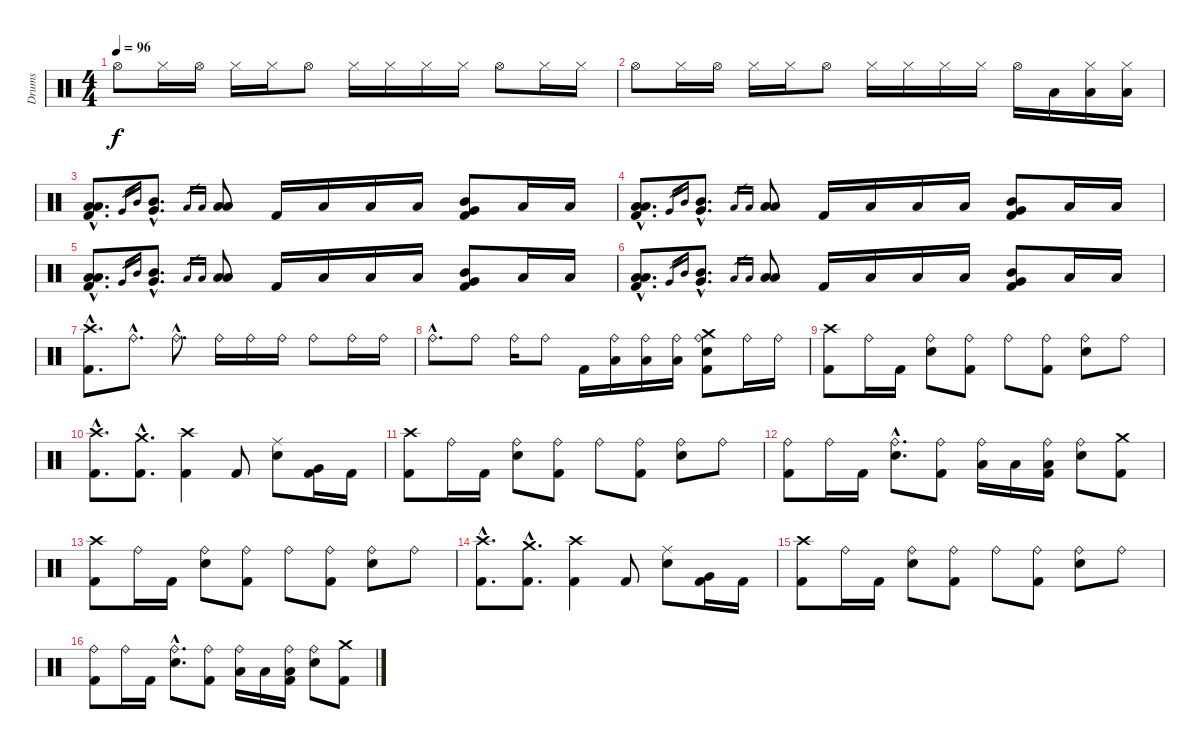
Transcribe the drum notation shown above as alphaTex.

\track ("Drums" "Drums") {instrument percussion}
\staff {score}
\articulation defaults
\ts (4 4)
\tempo 96
\clef neutral
\ks c "Hi-Hat (open)".8{dy f} "Hi-Hat (closed)".16 "Hi-Hat (open)".16 "Hi-Hat (closed)".16 "Hi-Hat (closed)".16 "Hi-Hat (open)".8 "Hi-Hat (closed)".16 "Hi-Hat (closed)".16 "Hi-Hat (closed)".16 "Hi-Hat (closed)".16 "Hi-Hat (open)".8 "Hi-Hat (closed)".16 "Hi-Hat (closed)".16
|
"Hi-Hat (open)".8 "Hi-Hat (closed)".16 "Hi-Hat (open)".16 "Hi-Hat (closed)".16 "Hi-Hat (closed)".16 "Hi-Hat (open)".8 "Hi-Hat (closed)".16 "Hi-Hat (closed)".16 "Hi-Hat (closed)".16 "Hi-Hat (closed)".16 "Hi-Hat (open)".16 "Low Tom (hit)".16 ("Hi-Hat (closed)" "Low Tom (hit)").16 ("Hi-Hat (closed)" "Low Tom (hit)").16 |
("Kick (hit) 2"{hac} "Low Floor Tom (hit)"{hac} "Low Tom (hit)"{hac}).8{d} "Very Low Tom (hit)".16{gr} "Mid Tom (hit)".16{gr} ("Very Low Tom (hit)"{hac} "Mid Tom (hit)"{hac}).8{d} "Low Floor Tom (hit)".16{gr} "Low Tom (hit)".16{gr} ("Low Floor Tom (hit)" "Low Tom (hit)").8 "Kick (hit) 2".16 "Low Tom (hit)".16 "Low Tom (hit)".16 "Low Tom (hit)".16 ("Kick (hit) 2" "Very Low Tom (hit)" "Mid Tom (hit)").8 "Low Tom (hit)".16 "Low Tom (hit)".16 |
("Kick (hit) 2"{hac} "Low Floor Tom (hit)"{hac} "Low Tom (hit)"{hac}).8{d} "Very Low Tom (hit)".16{gr} "Mid Tom (hit)".16{gr} ("Very Low Tom (hit)"{hac} "Mid Tom (hit)"{hac}).8{d} "Low Floor Tom (hit)".16{gr} "Low Tom (hit)".16{gr} ("Low Floor Tom (hit)" "Low Tom (hit)").8 "Kick (hit) 2".16 "Low Tom (hit)".16 "Low Tom (hit)".16 "Low Tom (hit)".16 ("Kick (hit) 2" "Very Low Tom (hit)" "Mid Tom (hit)").8 "Low Tom (hit)".16 "Low Tom (hit)".16 |
("Kick (hit) 2"{hac} "Low Floor Tom (hit)"{hac} "Low Tom (hit)"{hac}).8{d} "Very Low Tom (hit)".16{gr} "Mid Tom (hit)".16{gr} ("Very Low Tom (hit)"{hac} "Mid Tom (hit)"{hac}).8{d} "Low Floor Tom (hit)".16{gr} "Low Tom (hit)".16{gr} ("Low Floor Tom (hit)" "Low Tom (hit)").8 "Kick (hit) 2".16 "Low Tom (hit)".16 "Low Tom (hit)".16 "Low Tom (hit)".16 ("Kick (hit) 2" "Very Low Tom (hit)" "Mid Tom (hit)").8 "Low Tom (hit)".16 "Low Tom (hit)".16 |
("Kick (hit) 2"{hac} "Low Floor Tom (hit)"{hac} "Low Tom (hit)"{hac}).8{d} "Very Low Tom (hit)".16{gr} "Mid Tom (hit)".16{gr} ("Very Low Tom (hit)"{hac} "Mid Tom (hit)"{hac}).8{d} "Low Floor Tom (hit)".16{gr} "Low Tom (hit)".16{gr} ("Low Floor Tom (hit)" "Low Tom (hit)").8 "Kick (hit) 2".16 "Low Tom (hit)".16 "Low Tom (hit)".16 "Low Tom (hit)".16 ("Kick (hit) 2" "Very Low Tom (hit)" "Mid Tom (hit)").8 "Low Tom (hit)".16 "Low Tom (hit)".16 |
("Kick (hit) 2"{hac} "Crash high (hit)"{hac}).8{d} "Ride (bell)"{hac}.8{d} "Ride (bell)"{hac}.8{d} "Ride (bell)".16 "Ride (bell)".16 "Ride (bell)".16 "Ride (bell)".8 "Ride (bell)".16 "Ride (bell)".16 |
"Ride (bell)"{hac}.8{d} "Ride (bell)".8 "Ride (bell)".16 "Ride (bell)".8 "Kick (hit) 2".16 ("Low Tom (hit)" "Ride (bell)").16 ("Low Tom (hit)" "Ride (bell)").16 ("Low Tom (hit)" "Ride (bell)").16 ("Kick (hit) 2" "Snare (hit) 2" "Crash medium (hit)" "Ride (bell)").8 "Ride (bell)".16 "Ride (bell)".16 |
("Kick (hit) 2" "Crash high (hit)").8 "Ride (bell)".16 "Kick (hit) 2".16 ("Snare (hit) 2" "Ride (bell)").8 ("Kick (hit) 2" "Ride (bell)").8 "Ride (bell)".8 ("Kick (hit) 2" "Ride (bell)").8 ("Snare (hit) 2" "Ride (bell)").8 "Ride (bell)".8 |
("Kick (hit) 2"{hac} "Crash high (hit)"{hac}).8{d} ("Kick (hit) 2"{hac} "Crash medium (hit)"{hac}).8{d} ("Kick (hit) 2" "Crash high (hit)").4 "Kick (hit) 2".8 ("Snare (hit) 2" "Ride (middle)").8 ("Kick (hit) 2" "Very Low Tom (hit)").16 "Kick (hit) 2".16 |
("Kick (hit) 2" "Crash high (hit)").8 "Ride (bell)".16 "Kick (hit) 2".16 ("Snare (hit) 2" "Ride (bell)").8 ("Kick (hit) 2" "Ride (bell)").8 "Ride (bell)".8 ("Kick (hit) 2" "Ride (bell)").8 ("Snare (hit) 2" "Ride (bell)").8 "Ride (bell)".8 |
("Kick (hit) 2" "Ride (bell)").8 "Ride (bell)".16 "Kick (hit) 2".16 ("Snare (hit) 2"{hac} "Ride (bell)"{hac}).8{d} ("Kick (hit) 2" "Ride (bell)").8 ("Low Tom (hit)" "Ride (bell)").16 "Low Tom (hit)".16 ("Kick (hit) 2" "Low Tom (hit)" "Ride (bell)").16 ("Snare (hit) 2" "Ride (bell)").8 ("Kick (hit) 2" "Crash medium (hit)").8 |
("Kick (hit) 2" "Crash high (hit)").8 "Ride (bell)".16 "Kick (hit) 2".16 ("Snare (hit) 2" "Ride (bell)").8 ("Kick (hit) 2" "Ride (bell)").8 "Ride (bell)".8 ("Kick (hit) 2" "Ride (bell)").8 ("Snare (hit) 2" "Ride (bell)").8 "Ride (bell)".8 |
("Kick (hit) 2"{hac} "Crash high (hit)"{hac}).8{d} ("Kick (hit) 2"{hac} "Crash medium (hit)"{hac}).8{d} ("Kick (hit) 2" "Crash high (hit)").4 "Kick (hit) 2".8 ("Snare (hit) 2" "Ride (middle)").8 ("Kick (hit) 2" "Very Low Tom (hit)").16 "Kick (hit) 2".16 |
("Kick (hit) 2" "Crash high (hit)").8 "Ride (bell)".16 "Kick (hit) 2".16 ("Snare (hit) 2" "Ride (bell)").8 ("Kick (hit) 2" "Ride (bell)").8 "Ride (bell)".8 ("Kick (hit) 2" "Ride (bell)").8 ("Snare (hit) 2" "Ride (bell)").8 "Ride (bell)".8 |
("Kick (hit) 2" "Ride (bell)").8 "Ride (bell)".16 "Kick (hit) 2".16 ("Snare (hit) 2"{hac} "Ride (bell)"{hac}).8{d} ("Kick (hit) 2" "Ride (bell)").8 ("Low Tom (hit)" "Ride (bell)").16 "Low Tom (hit)".16 ("Kick (hit) 2" "Low Tom (hit)" "Ride (bell)").16 ("Snare (hit) 2" "Ride (bell)").8 ("Kick (hit) 2" "Crash medium (hit)").8
